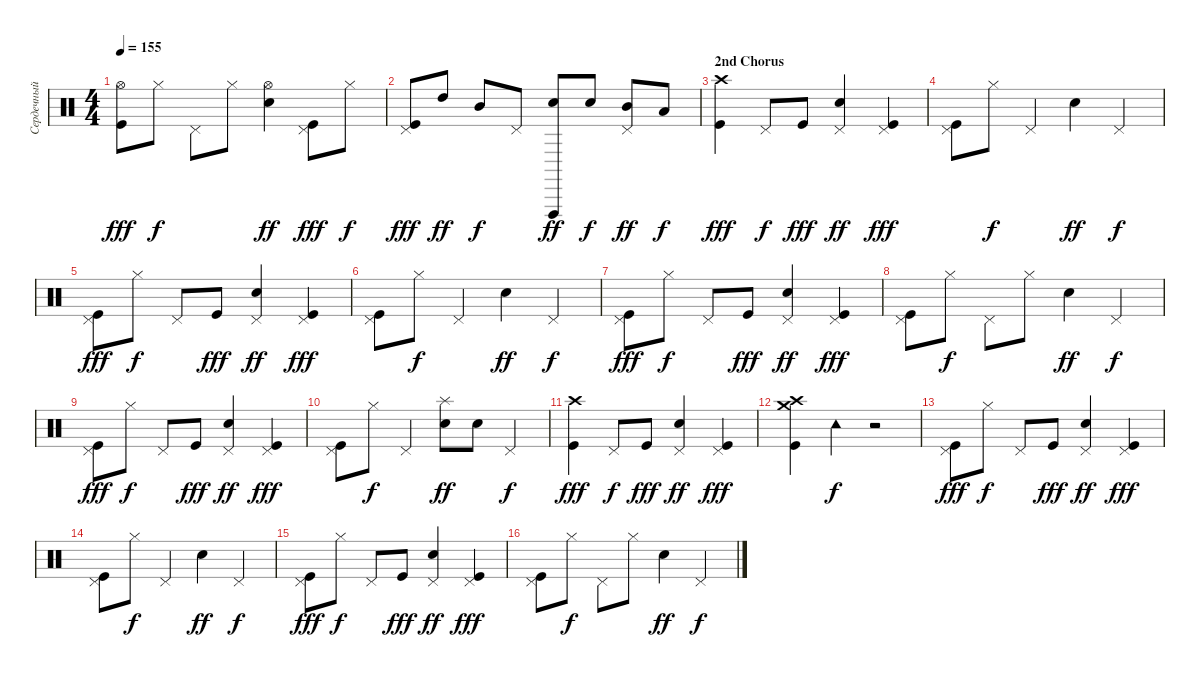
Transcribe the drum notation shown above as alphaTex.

\track ("Сердечный (Ударные)" "Сердечный ") {instrument percussion}
\staff {score}
\articulation defaults
\ts (4 4)
\tempo 155
\clef neutral
\ks c
("Hi-Hat (open)" "Kick (hit)").8{dy fff} "Hi-Hat (closed)".8{dy f} "Pedal Hi-Hat (hit)".8 "Hi-Hat (closed)".8 ("Hi-Hat (open)" "Electric Snare (hit)").4{dy ff} ("Kick (hit)" "Pedal Hi-Hat (hit)").8{dy fff} "Hi-Hat (closed)".8{dy f} |
("Kick (hit)" "Pedal Hi-Hat (hit)").8{dy fff} "High Tom (hit)".8{dy ff} "Mid Tom (hit)".8{dy f} "Pedal Hi-Hat (hit)".8 ("Vibraslap (hit)" "Electric Snare (hit)").8{dy ff} "Electric Snare (hit)".8{dy f} ("Mid Tom (hit)" "Pedal Hi-Hat (hit)").8{dy ff} "Low Tom (hit)".8{dy f} |
\section ("" "2nd Chorus")
("Crash high (hit)" "Kick (hit)").4{dy fff} "Pedal Hi-Hat (hit)".8{dy f} "Kick (hit)".8{dy fff} ("Electric Snare (hit)" "Pedal Hi-Hat (hit)").4{dy ff} ("Kick (hit)" "Pedal Hi-Hat (hit)").4{dy fff} |
("Kick (hit)" "Pedal Hi-Hat (hit)").8 "Hi-Hat (closed)".8{dy f} "Pedal Hi-Hat (hit)".4 "Electric Snare (hit)".4{dy ff} "Pedal Hi-Hat (hit)".4{dy f} |
("Kick (hit)" "Pedal Hi-Hat (hit)").8{dy fff} "Hi-Hat (closed)".8{dy f} "Pedal Hi-Hat (hit)".8 "Kick (hit)".8{dy fff} ("Electric Snare (hit)" "Pedal Hi-Hat (hit)").4{dy ff} ("Kick (hit)" "Pedal Hi-Hat (hit)").4{dy fff} |
("Kick (hit)" "Pedal Hi-Hat (hit)").8 "Hi-Hat (closed)".8{dy f} "Pedal Hi-Hat (hit)".4 "Electric Snare (hit)".4{dy ff} "Pedal Hi-Hat (hit)".4{dy f} |
("Kick (hit)" "Pedal Hi-Hat (hit)").8{dy fff} "Hi-Hat (closed)".8{dy f} "Pedal Hi-Hat (hit)".8 "Kick (hit)".8{dy fff} ("Electric Snare (hit)" "Pedal Hi-Hat (hit)").4{dy ff} ("Kick (hit)" "Pedal Hi-Hat (hit)").4{dy fff} |
("Kick (hit)" "Pedal Hi-Hat (hit)").8 "Hi-Hat (closed)".8{dy f} "Pedal Hi-Hat (hit)".8 "Hi-Hat (closed)".8 "Electric Snare (hit)".4{dy ff} "Pedal Hi-Hat (hit)".4{dy f} |
("Kick (hit)" "Pedal Hi-Hat (hit)").8{dy fff} "Hi-Hat (closed)".8{dy f} "Pedal Hi-Hat (hit)".8 "Kick (hit)".8{dy fff} ("Electric Snare (hit)" "Pedal Hi-Hat (hit)").4{dy ff} ("Kick (hit)" "Pedal Hi-Hat (hit)").4{dy fff} |
("Kick (hit)" "Pedal Hi-Hat (hit)").8 "Hi-Hat (closed)".8{dy f} "Pedal Hi-Hat (hit)".4 ("Splash (hit)" "Electric Snare (hit)").8{dy ff} "Electric Snare (hit)".8 "Pedal Hi-Hat (hit)".4{dy f} |
("Crash high (hit)" "Kick (hit)").4{dy fff} "Pedal Hi-Hat (hit)".8{dy f} "Kick (hit)".8{dy fff} ("Electric Snare (hit)" "Pedal Hi-Hat (hit)").4{dy ff} ("Kick (hit)" "Pedal Hi-Hat (hit)").4{dy fff} |
("Crash medium (hit)" "Crash high (hit)" "Kick (hit)").4 "Tambourine (hit)".4{dy f} r.2 |
("Kick (hit)" "Pedal Hi-Hat (hit)").8{dy fff} "Hi-Hat (closed)".8{dy f} "Pedal Hi-Hat (hit)".8 "Kick (hit)".8{dy fff} ("Electric Snare (hit)" "Pedal Hi-Hat (hit)").4{dy ff} ("Kick (hit)" "Pedal Hi-Hat (hit)").4{dy fff} |
("Kick (hit)" "Pedal Hi-Hat (hit)").8 "Hi-Hat (closed)".8{dy f} "Pedal Hi-Hat (hit)".4 "Electric Snare (hit)".4{dy ff} "Pedal Hi-Hat (hit)".4{dy f} |
("Kick (hit)" "Pedal Hi-Hat (hit)").8{dy fff} "Hi-Hat (closed)".8{dy f} "Pedal Hi-Hat (hit)".8 "Kick (hit)".8{dy fff} ("Electric Snare (hit)" "Pedal Hi-Hat (hit)").4{dy ff} ("Kick (hit)" "Pedal Hi-Hat (hit)").4{dy fff} |
("Kick (hit)" "Pedal Hi-Hat (hit)").8 "Hi-Hat (closed)".8{dy f} "Pedal Hi-Hat (hit)".8 "Hi-Hat (closed)".8 "Electric Snare (hit)".4{dy ff} "Pedal Hi-Hat (hit)".4{dy f}
